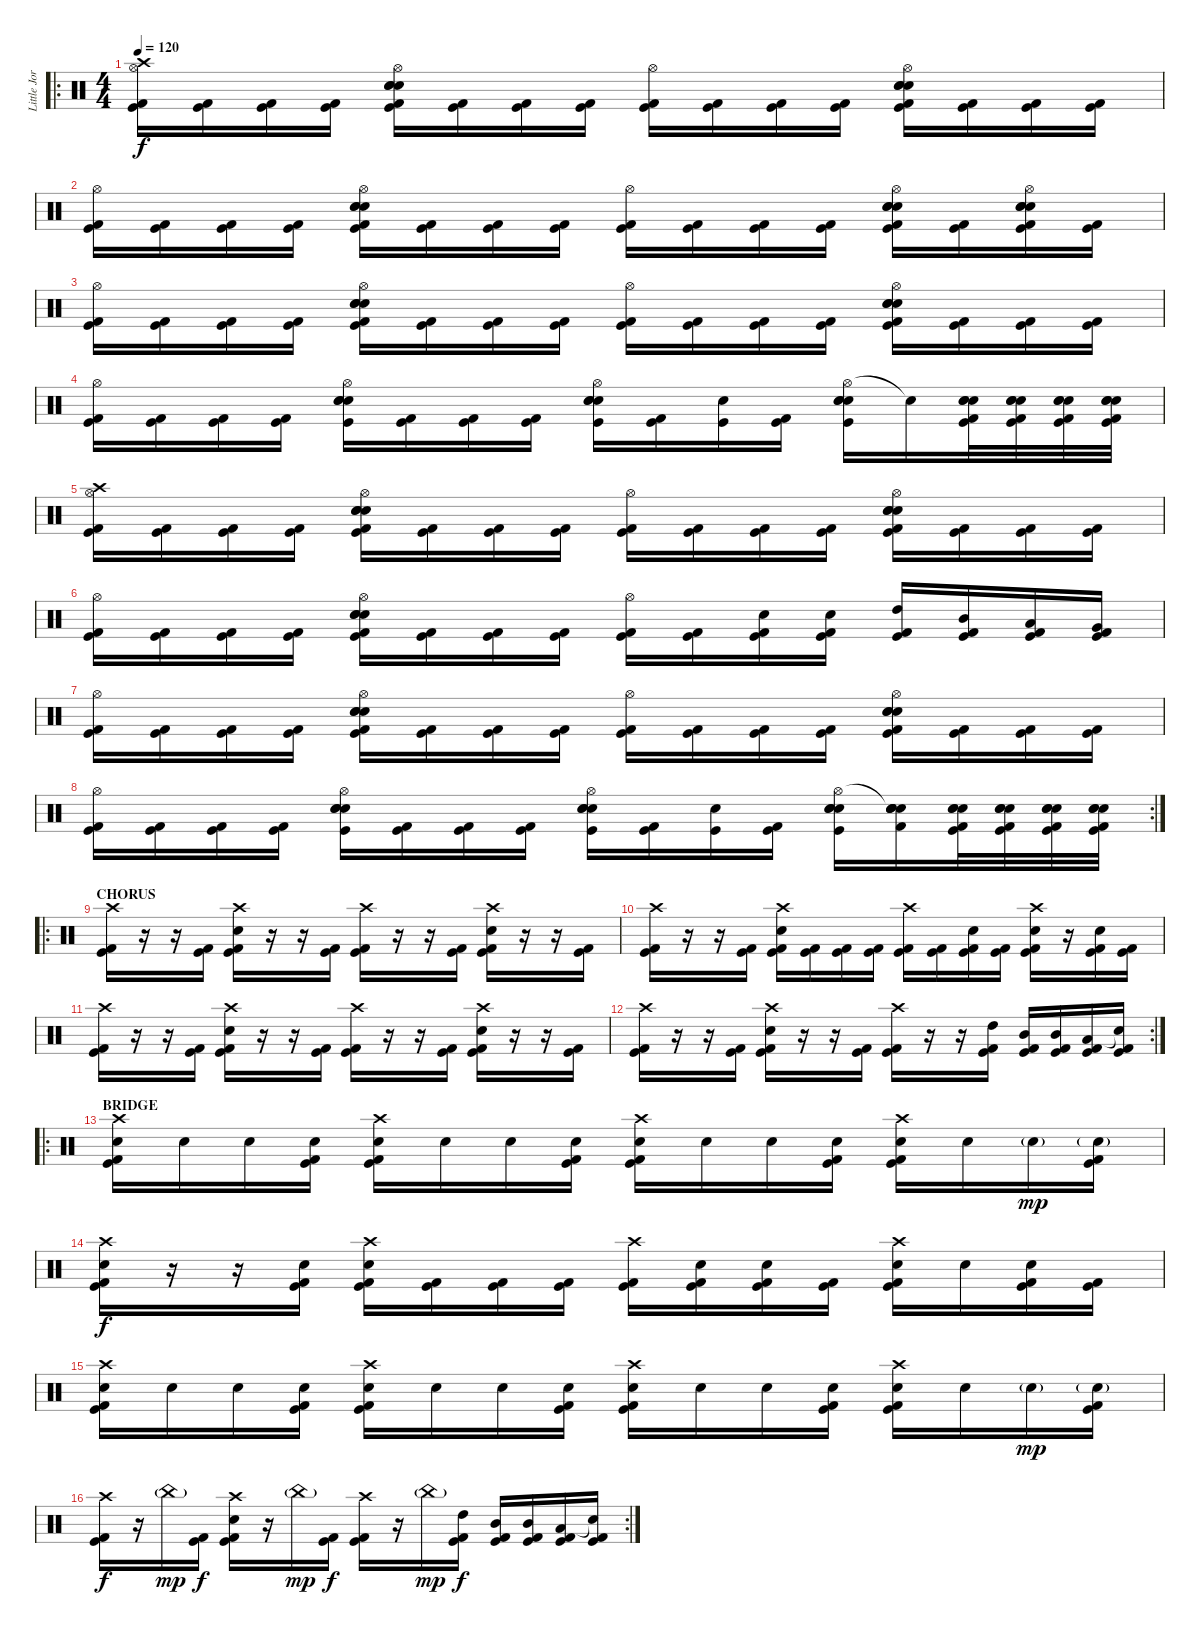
\track ("Little Jordison" "Little Jor") {instrument percussion}
\staff {score}
\articulation defaults
\ro
\ts (4 4)
\tempo 120
\clef neutral
\ks c
("Hi-Hat (open)" "Crash high (hit)" "Kick (hit)" "Kick (hit) 2").16{dy f} ("Kick (hit)" "Kick (hit) 2").16 ("Kick (hit)" "Kick (hit) 2").16 ("Kick (hit)" "Kick (hit) 2").16 ("Hi-Hat (open)" "Electric Snare (hit)" "Electric Snare (hit)" "Electric Snare (hit)" "Kick (hit)" "Kick (hit) 2").16 ("Kick (hit)" "Kick (hit) 2").16 ("Kick (hit)" "Kick (hit) 2").16 ("Kick (hit)" "Kick (hit) 2").16 ("Hi-Hat (open)" "Kick (hit)" "Kick (hit) 2").16 ("Kick (hit)" "Kick (hit) 2").16 ("Kick (hit)" "Kick (hit) 2").16 ("Kick (hit)" "Kick (hit) 2").16 ("Hi-Hat (open)" "Electric Snare (hit)" "Electric Snare (hit)" "Electric Snare (hit)" "Kick (hit)" "Kick (hit) 2").16 ("Kick (hit)" "Kick (hit) 2").16 ("Kick (hit)" "Kick (hit) 2").16 ("Kick (hit)" "Kick (hit) 2").16 |
("Hi-Hat (open)" "Kick (hit)" "Kick (hit) 2").16 ("Kick (hit)" "Kick (hit) 2").16 ("Kick (hit)" "Kick (hit) 2").16 ("Kick (hit)" "Kick (hit) 2").16 ("Hi-Hat (open)" "Electric Snare (hit)" "Electric Snare (hit)" "Electric Snare (hit)" "Kick (hit)" "Kick (hit) 2").16 ("Kick (hit)" "Kick (hit) 2").16 ("Kick (hit)" "Kick (hit) 2").16 ("Kick (hit)" "Kick (hit) 2").16 ("Hi-Hat (open)" "Kick (hit)" "Kick (hit) 2").16 ("Kick (hit)" "Kick (hit) 2").16 ("Kick (hit)" "Kick (hit) 2").16 ("Kick (hit)" "Kick (hit) 2").16 ("Hi-Hat (open)" "Electric Snare (hit)" "Electric Snare (hit)" "Electric Snare (hit)" "Kick (hit)" "Kick (hit) 2").16 ("Kick (hit)" "Kick (hit) 2").16 ("Hi-Hat (open)" "Electric Snare (hit)" "Electric Snare (hit)" "Electric Snare (hit)" "Kick (hit)" "Kick (hit) 2").16 ("Kick (hit)" "Kick (hit) 2").16 |
("Hi-Hat (open)" "Kick (hit)" "Kick (hit) 2").16 ("Kick (hit)" "Kick (hit) 2").16 ("Kick (hit)" "Kick (hit) 2").16 ("Kick (hit)" "Kick (hit) 2").16 ("Hi-Hat (open)" "Electric Snare (hit)" "Electric Snare (hit)" "Electric Snare (hit)" "Kick (hit)" "Kick (hit) 2").16 ("Kick (hit)" "Kick (hit) 2").16 ("Kick (hit)" "Kick (hit) 2").16 ("Kick (hit)" "Kick (hit) 2").16 ("Hi-Hat (open)" "Kick (hit)" "Kick (hit) 2").16 ("Kick (hit)" "Kick (hit) 2").16 ("Kick (hit)" "Kick (hit) 2").16 ("Kick (hit)" "Kick (hit) 2").16 ("Hi-Hat (open)" "Electric Snare (hit)" "Electric Snare (hit)" "Electric Snare (hit)" "Kick (hit)" "Kick (hit) 2").16 ("Kick (hit)" "Kick (hit) 2").16 ("Kick (hit)" "Kick (hit) 2").16 ("Kick (hit)" "Kick (hit) 2").16 |
("Hi-Hat (open)" "Kick (hit)" "Kick (hit) 2").16 ("Kick (hit)" "Kick (hit) 2").16 ("Kick (hit)" "Kick (hit) 2").16 ("Kick (hit)" "Kick (hit) 2").16 ("Hi-Hat (open)" "Electric Snare (hit)" "Electric Snare (hit)" "Kick (hit)" "Electric Snare (hit)").16 ("Kick (hit)" "Kick (hit) 2").16 ("Kick (hit)" "Kick (hit) 2").16 ("Kick (hit)" "Kick (hit) 2").16 ("Hi-Hat (open)" "Electric Snare (hit)" "Electric Snare (hit)" "Kick (hit)" "Electric Snare (hit)").16 ("Kick (hit)" "Kick (hit) 2").16 ("Kick (hit)" "Electric Snare (hit)").16 ("Kick (hit)" "Kick (hit) 2").16 ("Hi-Hat (open)" "Electric Snare (hit)" "Electric Snare (hit)" "Kick (hit)" "Electric Snare (hit)").16 "Snare (hit)"{t}.16 ("Electric Snare (hit)" "Electric Snare (hit)" "Kick (hit) 2" "Kick (hit)" "Electric Snare (hit)").32 ("Electric Snare (hit)" "Electric Snare (hit)" "Kick (hit) 2" "Kick (hit)" "Electric Snare (hit)").32 ("Electric Snare (hit)" "Electric Snare (hit)" "Kick (hit) 2" "Kick (hit)" "Electric Snare (hit)").32 ("Electric Snare (hit)" "Electric Snare (hit)" "Kick (hit) 2" "Kick (hit)" "Electric Snare (hit)").32 |
("Hi-Hat (open)" "Crash high (hit)" "Kick (hit)" "Kick (hit) 2").16 ("Kick (hit)" "Kick (hit) 2").16 ("Kick (hit)" "Kick (hit) 2").16 ("Kick (hit)" "Kick (hit) 2").16 ("Hi-Hat (open)" "Electric Snare (hit)" "Electric Snare (hit)" "Electric Snare (hit)" "Kick (hit)" "Kick (hit) 2").16 ("Kick (hit)" "Kick (hit) 2").16 ("Kick (hit)" "Kick (hit) 2").16 ("Kick (hit)" "Kick (hit) 2").16 ("Hi-Hat (open)" "Kick (hit)" "Kick (hit) 2").16 ("Kick (hit)" "Kick (hit) 2").16 ("Kick (hit)" "Kick (hit) 2").16 ("Kick (hit)" "Kick (hit) 2").16 ("Hi-Hat (open)" "Electric Snare (hit)" "Electric Snare (hit)" "Electric Snare (hit)" "Kick (hit)" "Kick (hit) 2").16 ("Kick (hit)" "Kick (hit) 2").16 ("Kick (hit)" "Kick (hit) 2").16 ("Kick (hit)" "Kick (hit) 2").16 |
("Hi-Hat (open)" "Kick (hit)" "Kick (hit) 2").16 ("Kick (hit)" "Kick (hit) 2").16 ("Kick (hit)" "Kick (hit) 2").16 ("Kick (hit)" "Kick (hit) 2").16 ("Hi-Hat (open)" "Electric Snare (hit)" "Electric Snare (hit)" "Electric Snare (hit)" "Kick (hit)" "Kick (hit) 2").16 ("Kick (hit)" "Kick (hit) 2").16 ("Kick (hit)" "Kick (hit) 2").16 ("Kick (hit)" "Kick (hit) 2").16 ("Hi-Hat (open)" "Kick (hit)" "Kick (hit) 2").16 ("Kick (hit)" "Kick (hit) 2").16 ("Electric Snare (hit)" "Kick (hit)" "Kick (hit) 2").16 ("Electric Snare (hit)" "Kick (hit)" "Kick (hit) 2").16 ("High Tom (hit)" "Kick (hit)" "Kick (hit) 2").16 ("Mid Tom (hit)" "Kick (hit)" "Kick (hit) 2").16 ("Low Tom (hit)" "Kick (hit)" "Kick (hit) 2").16 ("Very Low Tom (hit)" "Kick (hit)" "Kick (hit) 2").16 |
("Hi-Hat (open)" "Kick (hit)" "Kick (hit) 2").16 ("Kick (hit)" "Kick (hit) 2").16 ("Kick (hit)" "Kick (hit) 2").16 ("Kick (hit)" "Kick (hit) 2").16 ("Hi-Hat (open)" "Electric Snare (hit)" "Electric Snare (hit)" "Electric Snare (hit)" "Kick (hit)" "Kick (hit) 2").16 ("Kick (hit)" "Kick (hit) 2").16 ("Kick (hit)" "Kick (hit) 2").16 ("Kick (hit)" "Kick (hit) 2").16 ("Hi-Hat (open)" "Kick (hit)" "Kick (hit) 2").16 ("Kick (hit)" "Kick (hit) 2").16 ("Kick (hit)" "Kick (hit) 2").16 ("Kick (hit)" "Kick (hit) 2").16 ("Hi-Hat (open)" "Electric Snare (hit)" "Electric Snare (hit)" "Electric Snare (hit)" "Kick (hit)" "Kick (hit) 2").16 ("Kick (hit)" "Kick (hit) 2").16 ("Kick (hit)" "Kick (hit) 2").16 ("Kick (hit)" "Kick (hit) 2").16 |
\rc 2
("Hi-Hat (open)" "Kick (hit)" "Kick (hit) 2").16 ("Kick (hit)" "Kick (hit) 2").16 ("Kick (hit)" "Kick (hit) 2").16 ("Kick (hit)" "Kick (hit) 2").16 ("Hi-Hat (open)" "Electric Snare (hit)" "Electric Snare (hit)" "Kick (hit)" "Electric Snare (hit)").16 ("Kick (hit)" "Kick (hit) 2").16 ("Kick (hit)" "Kick (hit) 2").16 ("Kick (hit)" "Kick (hit) 2").16 ("Hi-Hat (open)" "Electric Snare (hit)" "Electric Snare (hit)" "Kick (hit)" "Electric Snare (hit)").16 ("Kick (hit)" "Kick (hit) 2").16 ("Kick (hit)" "Electric Snare (hit)").16 ("Kick (hit)" "Kick (hit) 2").16 ("Hi-Hat (open)" "Electric Snare (hit)" "Electric Snare (hit)" "Kick (hit)" "Electric Snare (hit)").16 ("Snare (hit)"{t} "Electric Snare (hit)" "Electric Snare (hit)" "Kick (hit) 2" "Electric Snare (hit)").16 ("Electric Snare (hit)" "Electric Snare (hit)" "Kick (hit) 2" "Kick (hit)" "Electric Snare (hit)").32 ("Electric Snare (hit)" "Electric Snare (hit)" "Kick (hit) 2" "Kick (hit)" "Electric Snare (hit)").32 ("Electric Snare (hit)" "Electric Snare (hit)" "Kick (hit) 2" "Kick (hit)" "Electric Snare (hit)").32 ("Electric Snare (hit)" "Electric Snare (hit)" "Kick (hit) 2" "Kick (hit)" "Electric Snare (hit)").32 |
\ro
\section ("" "CHORUS")
("Crash high (hit)" "Kick (hit)" "Kick (hit) 2").16 r.16 r.16 ("Kick (hit)" "Kick (hit) 2").16 ("Crash high (hit)" "Electric Snare (hit)" "Kick (hit)" "Kick (hit) 2").16 r.16 r.16 ("Kick (hit)" "Kick (hit) 2").16 ("Crash high (hit)" "Kick (hit)" "Kick (hit) 2").16 r.16 r.16 ("Kick (hit)" "Kick (hit) 2").16 ("Crash high (hit)" "Electric Snare (hit)" "Kick (hit)" "Kick (hit) 2").16 r.16 r.16 ("Kick (hit)" "Kick (hit) 2").16 |
("Crash high (hit)" "Kick (hit)" "Kick (hit) 2").16 r.16 r.16 ("Kick (hit)" "Kick (hit) 2").16 ("Crash high (hit)" "Electric Snare (hit)" "Kick (hit)" "Kick (hit) 2").16 ("Kick (hit)" "Kick (hit) 2").16 ("Kick (hit)" "Kick (hit) 2").16 ("Kick (hit)" "Kick (hit) 2").16 ("Crash high (hit)" "Kick (hit)" "Kick (hit) 2").16 ("Kick (hit)" "Kick (hit) 2").16 ("Electric Snare (hit)" "Kick (hit)" "Kick (hit) 2").16 ("Kick (hit)" "Kick (hit) 2").16 ("Crash high (hit)" "Electric Snare (hit)" "Kick (hit)" "Kick (hit) 2").16 r.16 ("Electric Snare (hit)" "Kick (hit)" "Kick (hit) 2").16 ("Kick (hit)" "Kick (hit) 2").16 |
("Crash high (hit)" "Kick (hit)" "Kick (hit) 2").16 r.16 r.16 ("Kick (hit)" "Kick (hit) 2").16 ("Crash high (hit)" "Electric Snare (hit)" "Kick (hit)" "Kick (hit) 2").16 r.16 r.16 ("Kick (hit)" "Kick (hit) 2").16 ("Crash high (hit)" "Kick (hit)" "Kick (hit) 2").16 r.16 r.16 ("Kick (hit)" "Kick (hit) 2").16 ("Crash high (hit)" "Electric Snare (hit)" "Kick (hit)" "Kick (hit) 2").16 r.16 r.16 ("Kick (hit)" "Kick (hit) 2").16 |
\rc 2
("Crash high (hit)" "Kick (hit)" "Kick (hit) 2").16 r.16 r.16 ("Kick (hit)" "Kick (hit) 2").16 ("Crash high (hit)" "Electric Snare (hit)" "Kick (hit)" "Kick (hit) 2").16 r.16 r.16 ("Kick (hit)" "Kick (hit) 2").16 ("Crash high (hit)" "Kick (hit)" "Kick (hit) 2").16 r.16 r.16 ("High Tom (hit)" "Kick (hit)" "Kick (hit) 2").16 ("Mid Tom (hit)" "Kick (hit)" "Kick (hit) 2").16 ("Mid Tom (hit)" "Kick (hit)" "Kick (hit) 2").16 ("Low Tom (hit)" "Kick (hit)" "Kick (hit) 2").16 ("Snare (hit)"{t} "Kick (hit)" "Kick (hit) 2").16 |
\ro
\section ("" "BRIDGE")
("Crash high (hit)" "Electric Snare (hit)" "Kick (hit)" "Kick (hit) 2").16 "Electric Snare (hit)".16 "Electric Snare (hit)".16 ("Electric Snare (hit)" "Kick (hit)" "Kick (hit) 2").16 ("Crash high (hit)" "Electric Snare (hit)" "Kick (hit)" "Kick (hit) 2").16 "Electric Snare (hit)".16 "Electric Snare (hit)".16 ("Electric Snare (hit)" "Kick (hit)" "Kick (hit) 2").16 ("Crash high (hit)" "Electric Snare (hit)" "Kick (hit)" "Kick (hit) 2").16 "Electric Snare (hit)".16 "Electric Snare (hit)".16 ("Electric Snare (hit)" "Kick (hit)" "Kick (hit) 2").16 ("Crash high (hit)" "Electric Snare (hit)" "Kick (hit)" "Kick (hit) 2").16 "Electric Snare (hit)".16 "Electric Snare (hit)"{g}.16{dy mp} ("Electric Snare (hit)"{g} "Kick (hit)" "Kick (hit) 2").16 |
("Crash high (hit)" "Electric Snare (hit)" "Kick (hit)" "Kick (hit) 2").16{dy f} r.16 r.16 ("Electric Snare (hit)" "Kick (hit)" "Kick (hit) 2").16 ("Crash high (hit)" "Electric Snare (hit)" "Kick (hit)" "Kick (hit) 2").16 ("Kick (hit)" "Kick (hit) 2").16 ("Kick (hit)" "Kick (hit) 2").16 ("Kick (hit)" "Kick (hit) 2").16 ("Crash high (hit)" "Kick (hit)" "Kick (hit) 2").16 ("Electric Snare (hit)" "Kick (hit)" "Kick (hit) 2").16 ("Electric Snare (hit)" "Kick (hit)" "Kick (hit) 2").16 ("Kick (hit)" "Kick (hit) 2").16 ("Crash high (hit)" "Electric Snare (hit)" "Kick (hit)" "Kick (hit) 2").16 "Electric Snare (hit)".16 ("Electric Snare (hit)" "Kick (hit)" "Kick (hit) 2").16 ("Kick (hit)" "Kick (hit) 2").16 |
("Crash high (hit)" "Electric Snare (hit)" "Kick (hit)" "Kick (hit) 2").16 "Electric Snare (hit)".16 "Electric Snare (hit)".16 ("Electric Snare (hit)" "Kick (hit)" "Kick (hit) 2").16 ("Crash high (hit)" "Electric Snare (hit)" "Kick (hit)" "Kick (hit) 2").16 "Electric Snare (hit)".16 "Electric Snare (hit)".16 ("Electric Snare (hit)" "Kick (hit)" "Kick (hit) 2").16 ("Crash high (hit)" "Electric Snare (hit)" "Kick (hit)" "Kick (hit) 2").16 "Electric Snare (hit)".16 "Electric Snare (hit)".16 ("Electric Snare (hit)" "Kick (hit)" "Kick (hit) 2").16 ("Crash high (hit)" "Electric Snare (hit)" "Kick (hit)" "Kick (hit) 2").16 "Electric Snare (hit)".16 "Electric Snare (hit)"{g}.16{dy mp} ("Electric Snare (hit)"{g} "Kick (hit)" "Kick (hit) 2").16 |
\rc 2
("Crash high (hit)" "Kick (hit)" "Kick (hit) 2").16{dy f} r.16 "China (hit)"{g}.16{dy mp} ("Kick (hit)" "Kick (hit) 2").16{dy f} ("Crash high (hit)" "Electric Snare (hit)" "Kick (hit)" "Kick (hit) 2").16 r.16 "China (hit)"{g}.16{dy mp} ("Kick (hit)" "Kick (hit) 2").16{dy f} ("Crash high (hit)" "Kick (hit)" "Kick (hit) 2").16 r.16 "China (hit)"{g}.16{dy mp} ("High Tom (hit)" "Kick (hit)" "Kick (hit) 2").16{dy f} ("Mid Tom (hit)" "Kick (hit)" "Kick (hit) 2").16 ("Mid Tom (hit)" "Kick (hit)" "Kick (hit) 2").16 ("Low Tom (hit)" "Kick (hit)" "Kick (hit) 2").16 ("Snare (hit)"{t} "Kick (hit)" "Kick (hit) 2").16
